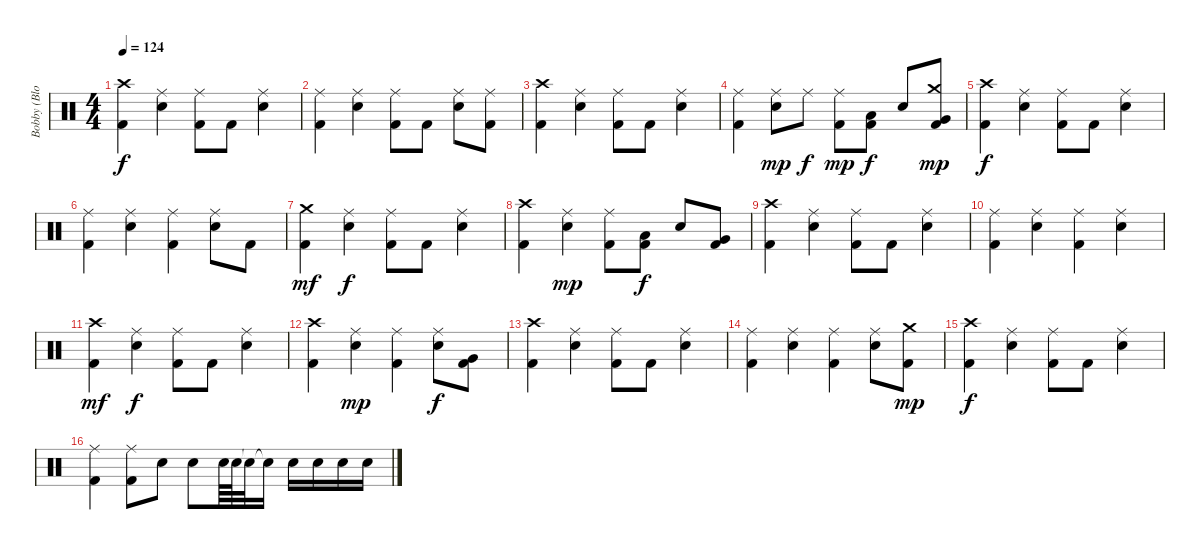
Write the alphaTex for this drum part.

\track ("Bobby (Blotz) Blotzer" "Bobby (Blo") {instrument percussion}
\staff {score}
\articulation defaults
\ts (4 4)
\tempo 124
\clef neutral
\ks c
("Kick (hit) 2" "Crash high (hit)").4{dy f} ("Ride (middle)" "Snare (hit) 2").4 ("Kick (hit) 2" "Ride (middle)").8 "Kick (hit) 2".8 ("Ride (middle)" "Snare (hit) 2").4 |
("Kick (hit) 2" "Ride (middle)").4 ("Ride (middle)" "Snare (hit) 2").4 ("Kick (hit) 2" "Ride (middle)").8 "Kick (hit) 2".8 ("Ride (middle)" "Snare (hit) 2").8 ("Kick (hit) 2" "Ride (middle)").8 |
("Kick (hit) 2" "Crash high (hit)").4 ("Ride (middle)" "Snare (hit) 2").4 ("Kick (hit) 2" "Ride (middle)").8 "Kick (hit) 2".8 ("Ride (middle)" "Snare (hit) 2").4 |
("Kick (hit) 2" "Ride (middle)").4 ("Ride (middle)" "Snare (hit) 2").8{dy mp} "Ride (middle)".8{dy f} ("Kick (hit) 2" "Ride (middle)").8{dy mp} ("Kick (hit) 2" "Low Tom (hit)").8{dy f} "Snare (hit) 2".8 ("Kick (hit) 2" "Crash medium (hit)" "Very Low Tom (hit)").8{dy mp} |
("Kick (hit) 2" "Crash high (hit)").4{dy f} ("Ride (middle)" "Snare (hit) 2").4 ("Kick (hit) 2" "Ride (middle)").8 "Kick (hit) 2".8 ("Ride (middle)" "Snare (hit) 2").4 |
("Kick (hit) 2" "Ride (middle)").4 ("Ride (middle)" "Snare (hit) 2").4 ("Kick (hit) 2" "Ride (middle)").4 ("Ride (middle)" "Snare (hit) 2").8 "Kick (hit) 2".8 |
("Kick (hit) 2" "Crash medium (hit)").4{dy mf} ("Ride (middle)" "Snare (hit) 2").4{dy f} ("Kick (hit) 2" "Ride (middle)").8 "Kick (hit) 2".8 ("Ride (middle)" "Snare (hit) 2").4 |
("Kick (hit) 2" "Crash high (hit)").4 ("Ride (middle)" "Snare (hit) 2").4{dy mp} ("Kick (hit) 2" "Ride (middle)").8 ("Kick (hit) 2" "Low Tom (hit)").8{dy f} "Snare (hit) 2".8 ("Kick (hit) 2" "Very Low Tom (hit)").8 |
("Kick (hit) 2" "Crash high (hit)").4 ("Ride (middle)" "Snare (hit) 2").4 ("Kick (hit) 2" "Ride (middle)").8 "Kick (hit) 2".8 ("Ride (middle)" "Snare (hit) 2").4 |
("Kick (hit) 2" "Ride (middle)").4 ("Ride (middle)" "Snare (hit) 2").4 ("Kick (hit) 2" "Ride (middle)").4 ("Ride (middle)" "Snare (hit) 2").4 |
("Kick (hit) 2" "Crash high (hit)").4{dy mf} ("Ride (middle)" "Snare (hit) 2").4{dy f} ("Kick (hit) 2" "Ride (middle)").8 "Kick (hit) 2".8 ("Ride (middle)" "Snare (hit) 2").4 |
("Kick (hit) 2" "Crash high (hit)").4 ("Ride (middle)" "Snare (hit) 2").4{dy mp} ("Kick (hit) 2" "Ride (middle)").4 ("Ride (middle)" "Snare (hit) 2").8{dy f} ("Kick (hit) 2" "Very Low Tom (hit)").8 |
("Kick (hit) 2" "Crash high (hit)").4 ("Ride (middle)" "Snare (hit) 2").4 ("Kick (hit) 2" "Ride (middle)").8 "Kick (hit) 2".8 ("Ride (middle)" "Snare (hit) 2").4 |
("Kick (hit) 2" "Ride (middle)").4 ("Ride (middle)" "Snare (hit) 2").4 ("Kick (hit) 2" "Ride (middle)").4 ("Ride (middle)" "Snare (hit) 2").8 ("Kick (hit) 2" "Crash medium (hit)").8{dy mp} |
("Kick (hit) 2" "Crash high (hit)").4{dy f} ("Ride (middle)" "Snare (hit) 2").4 ("Kick (hit) 2" "Ride (middle)").8 "Kick (hit) 2".8 ("Ride (middle)" "Snare (hit) 2").4 |
("Kick (hit) 2" "Ride (middle)").4 ("Kick (hit) 2" "Ride (middle)").8 "Snare (hit) 2".8 "Snare (hit) 2".8 "Snare (hit) 2".64 "Snare (hit) 2".64 "Snare (hit)"{t}.32 "Snare (hit)"{t}.16 "Snare (hit) 2".16 "Snare (hit) 2".16 "Snare (hit) 2".16 "Snare (hit) 2".16
